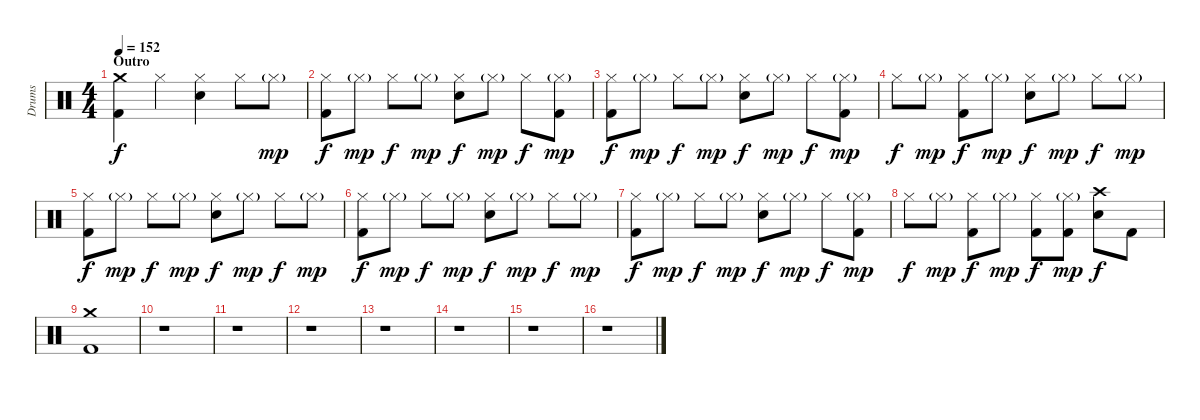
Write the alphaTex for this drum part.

\track ("Drums" "Drums") {instrument percussion}
\staff {score}
\articulation defaults
\ts (4 4)
\section ("" "Outro")
\tempo 152
\clef neutral
\ks c
("Crash medium (hit)" "Kick (hit) 2").4{dy f} "Hi-Hat (closed)".4 ("Hi-Hat (closed)" "Snare (hit) 2").4 "Hi-Hat (closed)".8 "Hi-Hat (closed)"{g}.8{dy mp} |
("Hi-Hat (closed)" "Kick (hit) 2").8{dy f} "Hi-Hat (closed)"{g}.8{dy mp} "Hi-Hat (closed)".8{dy f} "Hi-Hat (closed)"{g}.8{dy mp} ("Hi-Hat (closed)" "Snare (hit) 2").8{dy f} "Hi-Hat (closed)"{g}.8{dy mp} "Hi-Hat (closed)".8{dy f} ("Hi-Hat (closed)"{g} "Kick (hit) 2").8{dy mp} |
("Hi-Hat (closed)" "Kick (hit) 2").8{dy f} "Hi-Hat (closed)"{g}.8{dy mp} "Hi-Hat (closed)".8{dy f} "Hi-Hat (closed)"{g}.8{dy mp} ("Hi-Hat (closed)" "Snare (hit) 2").8{dy f} "Hi-Hat (closed)"{g}.8{dy mp} "Hi-Hat (closed)".8{dy f} ("Hi-Hat (closed)"{g} "Kick (hit) 2").8{dy mp} |
"Hi-Hat (closed)".8{dy f} "Hi-Hat (closed)"{g}.8{dy mp} ("Hi-Hat (closed)" "Kick (hit) 2").8{dy f} "Hi-Hat (closed)"{g}.8{dy mp} ("Hi-Hat (closed)" "Snare (hit) 2").8{dy f} "Hi-Hat (closed)"{g}.8{dy mp} "Hi-Hat (closed)".8{dy f} "Hi-Hat (closed)"{g}.8{dy mp} |
("Hi-Hat (closed)" "Kick (hit) 2").8{dy f} "Hi-Hat (closed)"{g}.8{dy mp} "Hi-Hat (closed)".8{dy f} "Hi-Hat (closed)"{g}.8{dy mp} ("Hi-Hat (closed)" "Snare (hit) 2").8{dy f} "Hi-Hat (closed)"{g}.8{dy mp} "Hi-Hat (closed)".8{dy f} "Hi-Hat (closed)"{g}.8{dy mp} |
("Hi-Hat (closed)" "Kick (hit) 2").8{dy f} "Hi-Hat (closed)"{g}.8{dy mp} "Hi-Hat (closed)".8{dy f} "Hi-Hat (closed)"{g}.8{dy mp} ("Hi-Hat (closed)" "Snare (hit) 2").8{dy f} "Hi-Hat (closed)"{g}.8{dy mp} "Hi-Hat (closed)".8{dy f} "Hi-Hat (closed)"{g}.8{dy mp} |
("Hi-Hat (closed)" "Kick (hit) 2").8{dy f} "Hi-Hat (closed)"{g}.8{dy mp} "Hi-Hat (closed)".8{dy f} "Hi-Hat (closed)"{g}.8{dy mp} ("Hi-Hat (closed)" "Snare (hit) 2").8{dy f} "Hi-Hat (closed)"{g}.8{dy mp} "Hi-Hat (closed)".8{dy f} ("Hi-Hat (closed)"{g} "Kick (hit) 2").8{dy mp} |
"Hi-Hat (closed)".8{dy f} "Hi-Hat (closed)"{g}.8{dy mp} ("Hi-Hat (closed)" "Kick (hit) 2").8{dy f} "Hi-Hat (closed)"{g}.8{dy mp} ("Hi-Hat (closed)" "Kick (hit) 2").8{dy f} ("Hi-Hat (closed)"{g} "Kick (hit) 2").8{dy mp} ("Crash high (hit)" "Snare (hit) 2").8{dy f} "Kick (hit) 2".8 |
("Crash medium (hit)" "Kick (hit) 2").1 |
r.1 |
r.1 |
r.1 |
r.1 |
r.1 |
r.1 |
r.1
